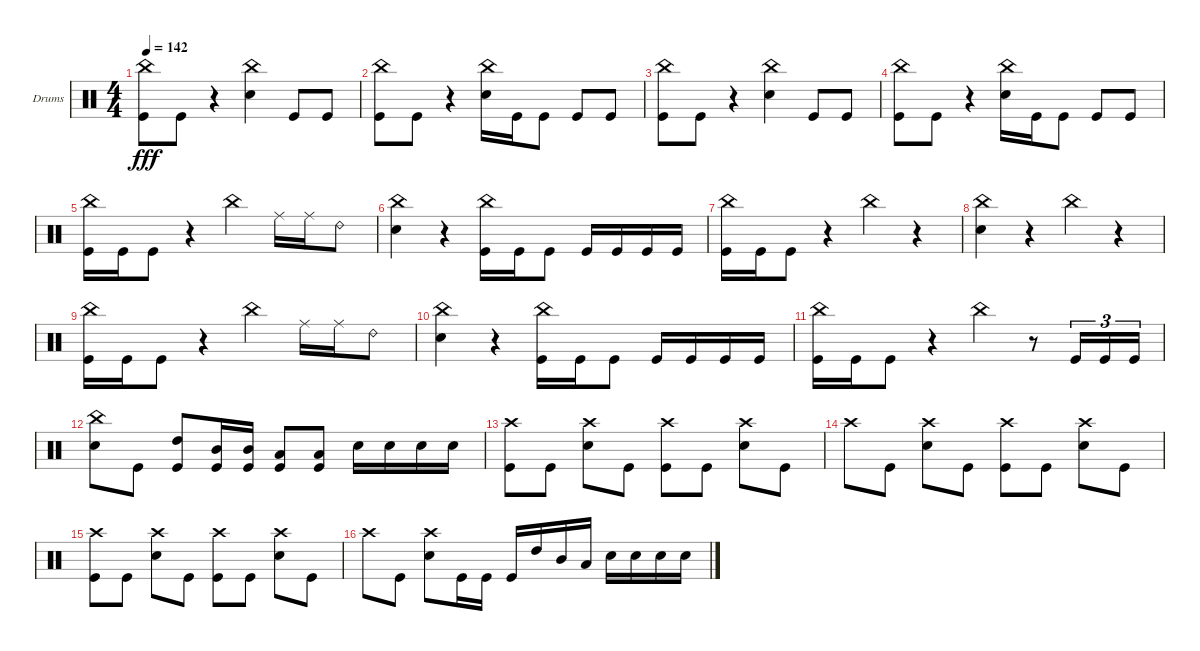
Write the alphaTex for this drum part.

\defaultSystemsLayout 4
\bracketExtendMode groupsimilarinstruments
\firstSystemTrackNameOrientation horizontal
\otherSystemsTrackNameOrientation horizontal
\track ("Drumkit" "Drums") {instrument percussion}
\staff {score}
\articulation defaults
\ts (4 4)
\tempo 142
\clef neutral
\scale
0.333333
\ks c
("Kick (hit)" "China (hit)").8{dy fff} "Kick (hit)".8 r.4 ("Snare (hit) 2" "China (hit)").4 "Kick (hit)".8 "Kick (hit)".8 |
\scale
0.333333 ("Kick (hit)" "China (hit)").8 "Kick (hit)".8 r.4 ("Snare (hit) 2" "China (hit)").16 "Kick (hit)".16 "Kick (hit)".8 "Kick (hit)".8 "Kick (hit)".8 |
\scale
0.333333 ("Kick (hit)" "China (hit)").8 "Kick (hit)".8 r.4 ("Snare (hit) 2" "China (hit)").4 "Kick (hit)".8 "Kick (hit)".8 |
\scale
0.333333 ("Kick (hit)" "China (hit)").8 "Kick (hit)".8 r.4 ("Snare (hit) 2" "China (hit)").16 "Kick (hit)".16 "Kick (hit)".8 "Kick (hit)".8 "Kick (hit)".8 |
\scale
0.333333 ("Kick (hit)" "China (hit)").16 "Kick (hit)".16 "Kick (hit)".8 r.4 "China (hit)".4 "Ride (middle)".16 "Ride (middle)".16 "Ride (bell) 2".8 |
\scale
0.333333 ("China (hit)" "Snare (hit) 2").4 r.4 ("Kick (hit)" "China (hit)").16 "Kick (hit)".16 "Kick (hit)".8 "Kick (hit)".16 "Kick (hit)".16 "Kick (hit)".16 "Kick (hit)".16 |
\scale
0.333333 ("Kick (hit)" "China (hit)").16 "Kick (hit)".16 "Kick (hit)".8 r.4 "China (hit)".4 r.4 |
\scale
0.333333 ("China (hit)" "Snare (hit) 2").4 r.4 "China (hit)".4 r.4 |
\scale
0.333333 ("Kick (hit)" "China (hit)").16 "Kick (hit)".16 "Kick (hit)".8 r.4 "China (hit)".4 "Ride (middle)".16 "Ride (middle)".16 "Ride (bell) 2".8 |
\scale
0.333333 ("China (hit)" "Snare (hit) 2").4 r.4 ("Kick (hit)" "China (hit)").16 "Kick (hit)".16 "Kick (hit)".8 "Kick (hit)".16 "Kick (hit)".16 "Kick (hit)".16 "Kick (hit)".16 |
\scale
0.333333 ("Kick (hit)" "China (hit)").16 "Kick (hit)".16 "Kick (hit)".8 r.4 "China (hit)".4 r.8 "Kick (hit)".16{tu (3 2)} "Kick (hit)".16{tu (3 2)} "Kick (hit)".16{tu (3 2)} |
\scale
0.333333 ("Snare (hit) 2" "China (hit)").8 "Kick (hit)".8 ("Kick (hit)" "High Tom (hit)").8 ("Kick (hit)" "Mid Tom (hit)").16 ("Kick (hit)" "Mid Tom (hit)").16 ("Kick (hit)" "Low Tom (hit)").8 ("Kick (hit)" "Low Tom (hit)").8 "Snare (hit) 2".16 "Snare (hit) 2".16 "Snare (hit) 2".16 "Snare (hit) 2".16 |
\scale
0.333333 ("Kick (hit)" "Crash high (hit)").8 "Kick (hit)".8 ("Snare (hit) 2" "Crash high (hit)").8 "Kick (hit)".8 ("Kick (hit)" "Crash high (hit)").8 "Kick (hit)".8 ("Snare (hit) 2" "Crash high (hit)").8 "Kick (hit)".8 |
\scale
0.333333 "Crash high (hit)".8 "Kick (hit)".8 ("Crash high (hit)" "Snare (hit) 2").8 "Kick (hit)".8 ("Crash high (hit)" "Kick (hit)").8 "Kick (hit)".8 ("Crash high (hit)" "Snare (hit) 2").8 "Kick (hit)".8 |
\scale
0.333333 ("Kick (hit)" "Crash high (hit)").8 "Kick (hit)".8 ("Snare (hit) 2" "Crash high (hit)").8 "Kick (hit)".8 ("Kick (hit)" "Crash high (hit)").8 "Kick (hit)".8 ("Snare (hit) 2" "Crash high (hit)").8 "Kick (hit)".8 |
\scale
0.333333 "Crash high (hit)".8 "Kick (hit)".8 ("Crash high (hit)" "Snare (hit) 2").8 "Kick (hit)".16 "Kick (hit)".16 "Kick (hit)".16 "High Tom (hit)".16 "Mid Tom (hit)".16 "Low Tom (hit)".16 "Snare (hit) 2".16 "Snare (hit) 2".16 "Snare (hit) 2".16 "Snare (hit) 2".16
